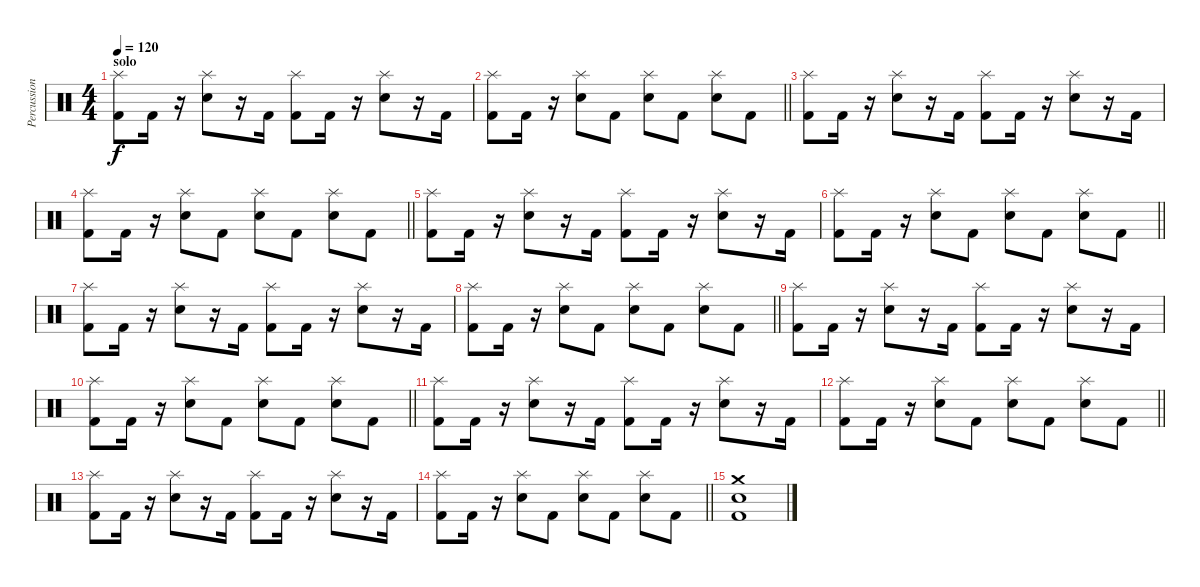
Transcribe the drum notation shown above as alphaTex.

\track ("Percussions" "Percussion") {instrument percussion}
\staff {score}
\articulation defaults
\ts (4 4)
\section ("" "solo")
\tempo 120
\clef neutral
\ks c
("Splash (hit)" "Kick (hit) 2").8{dy f} "Kick (hit) 2".16 r.16 ("Splash (hit)" "Electric Snare (hit)").8 r.16 "Kick (hit) 2".16 ("Splash (hit)" "Kick (hit) 2").8 "Kick (hit) 2".16 r.16 ("Splash (hit)" "Electric Snare (hit)").8 r.16 "Kick (hit) 2".16 |
\barLineRight lightlight
("Splash (hit)" "Kick (hit) 2").8 "Kick (hit) 2".16 r.16 ("Splash (hit)" "Electric Snare (hit)").8 "Kick (hit) 2".8 ("Splash (hit)" "Electric Snare (hit)").8 "Kick (hit) 2".8 ("Splash (hit)" "Electric Snare (hit)").8 "Kick (hit) 2".8 |
("Splash (hit)" "Kick (hit) 2").8 "Kick (hit) 2".16 r.16 ("Splash (hit)" "Electric Snare (hit)").8 r.16 "Kick (hit) 2".16 ("Splash (hit)" "Kick (hit) 2").8 "Kick (hit) 2".16 r.16 ("Splash (hit)" "Electric Snare (hit)").8 r.16 "Kick (hit) 2".16 |
\barLineRight lightlight
("Splash (hit)" "Kick (hit) 2").8 "Kick (hit) 2".16 r.16 ("Splash (hit)" "Electric Snare (hit)").8 "Kick (hit) 2".8 ("Splash (hit)" "Electric Snare (hit)").8 "Kick (hit) 2".8 ("Splash (hit)" "Electric Snare (hit)").8 "Kick (hit) 2".8 |
("Splash (hit)" "Kick (hit) 2").8 "Kick (hit) 2".16 r.16 ("Splash (hit)" "Electric Snare (hit)").8 r.16 "Kick (hit) 2".16 ("Splash (hit)" "Kick (hit) 2").8 "Kick (hit) 2".16 r.16 ("Splash (hit)" "Electric Snare (hit)").8 r.16 "Kick (hit) 2".16 |
\barLineRight lightlight
("Splash (hit)" "Kick (hit) 2").8 "Kick (hit) 2".16 r.16 ("Splash (hit)" "Electric Snare (hit)").8 "Kick (hit) 2".8 ("Splash (hit)" "Electric Snare (hit)").8 "Kick (hit) 2".8 ("Splash (hit)" "Electric Snare (hit)").8 "Kick (hit) 2".8 |
("Splash (hit)" "Kick (hit) 2").8 "Kick (hit) 2".16 r.16 ("Splash (hit)" "Electric Snare (hit)").8 r.16 "Kick (hit) 2".16 ("Splash (hit)" "Kick (hit) 2").8 "Kick (hit) 2".16 r.16 ("Splash (hit)" "Electric Snare (hit)").8 r.16 "Kick (hit) 2".16 |
\barLineRight lightlight
("Splash (hit)" "Kick (hit) 2").8 "Kick (hit) 2".16 r.16 ("Splash (hit)" "Electric Snare (hit)").8 "Kick (hit) 2".8 ("Splash (hit)" "Electric Snare (hit)").8 "Kick (hit) 2".8 ("Splash (hit)" "Electric Snare (hit)").8 "Kick (hit) 2".8 |
("Splash (hit)" "Kick (hit) 2").8 "Kick (hit) 2".16 r.16 ("Splash (hit)" "Electric Snare (hit)").8 r.16 "Kick (hit) 2".16 ("Splash (hit)" "Kick (hit) 2").8 "Kick (hit) 2".16 r.16 ("Splash (hit)" "Electric Snare (hit)").8 r.16 "Kick (hit) 2".16 |
\barLineRight lightlight
("Splash (hit)" "Kick (hit) 2").8 "Kick (hit) 2".16 r.16 ("Splash (hit)" "Electric Snare (hit)").8 "Kick (hit) 2".8 ("Splash (hit)" "Electric Snare (hit)").8 "Kick (hit) 2".8 ("Splash (hit)" "Electric Snare (hit)").8 "Kick (hit) 2".8 |
("Splash (hit)" "Kick (hit) 2").8 "Kick (hit) 2".16 r.16 ("Splash (hit)" "Electric Snare (hit)").8 r.16 "Kick (hit) 2".16 ("Splash (hit)" "Kick (hit) 2").8 "Kick (hit) 2".16 r.16 ("Splash (hit)" "Electric Snare (hit)").8 r.16 "Kick (hit) 2".16 |
\barLineRight lightlight
("Splash (hit)" "Kick (hit) 2").8 "Kick (hit) 2".16 r.16 ("Splash (hit)" "Electric Snare (hit)").8 "Kick (hit) 2".8 ("Splash (hit)" "Electric Snare (hit)").8 "Kick (hit) 2".8 ("Splash (hit)" "Electric Snare (hit)").8 "Kick (hit) 2".8 |
("Splash (hit)" "Kick (hit) 2").8 "Kick (hit) 2".16 r.16 ("Splash (hit)" "Electric Snare (hit)").8 r.16 "Kick (hit) 2".16 ("Splash (hit)" "Kick (hit) 2").8 "Kick (hit) 2".16 r.16 ("Splash (hit)" "Electric Snare (hit)").8 r.16 "Kick (hit) 2".16 |
\barLineRight lightlight
("Splash (hit)" "Kick (hit) 2").8 "Kick (hit) 2".16 r.16 ("Splash (hit)" "Electric Snare (hit)").8 "Kick (hit) 2".8 ("Splash (hit)" "Electric Snare (hit)").8 "Kick (hit) 2".8 ("Splash (hit)" "Electric Snare (hit)").8 "Kick (hit) 2".8 |
("Crash medium (hit)" "Electric Snare (hit)" "Kick (hit) 2").1
